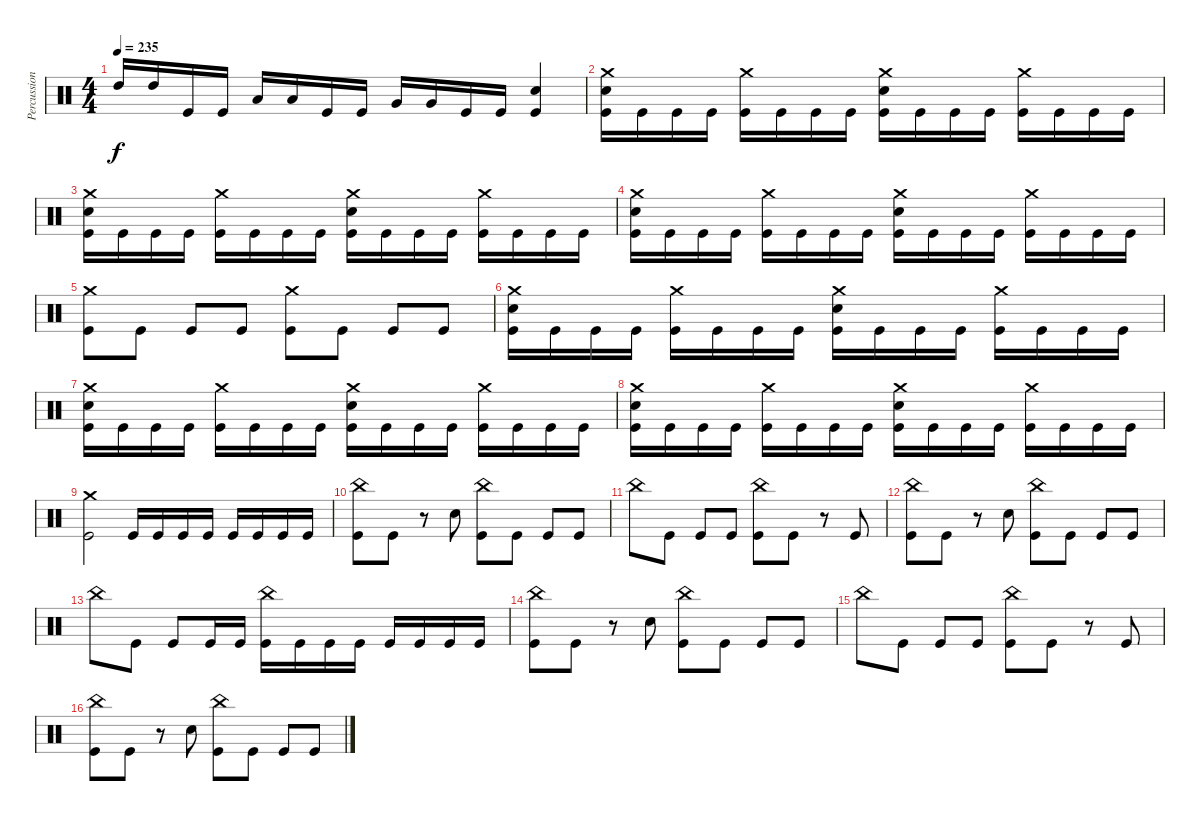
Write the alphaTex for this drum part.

\track ("Percussion" "Percussion") {instrument percussion}
\staff {score}
\articulation defaults
\ts (4 4)
\tempo 235
\clef neutral
\ks c "High Tom (hit)".16{dy f} "High Tom (hit)".16 "Kick (hit)".16 "Kick (hit)".16 "Low Tom (hit)".16 "Low Tom (hit)".16 "Kick (hit)".16 "Kick (hit)".16 "Very Low Tom (hit)".16 "Very Low Tom (hit)".16 "Kick (hit)".16 "Kick (hit)".16
("Kick (hit)" "Snare (hit) 2").4 |
("Kick (hit)" "Crash medium (hit)" "Snare (hit) 2").16 "Kick (hit)".16 "Kick (hit)".16 "Kick (hit)".16 ("Kick (hit)" "Crash medium (hit)").16 "Kick (hit)".16 "Kick (hit)".16 "Kick (hit)".16 ("Kick (hit)" "Crash medium (hit)" "Snare (hit) 2").16 "Kick (hit)".16 "Kick (hit)".16 "Kick (hit)".16 ("Kick (hit)" "Crash medium (hit)").16 "Kick (hit)".16 "Kick (hit)".16 "Kick (hit)".16 |
("Kick (hit)" "Crash medium (hit)" "Snare (hit) 2").16 "Kick (hit)".16 "Kick (hit)".16 "Kick (hit)".16 ("Kick (hit)" "Crash medium (hit)").16 "Kick (hit)".16 "Kick (hit)".16 "Kick (hit)".16 ("Kick (hit)" "Crash medium (hit)" "Snare (hit) 2").16 "Kick (hit)".16 "Kick (hit)".16 "Kick (hit)".16 ("Kick (hit)" "Crash medium (hit)").16 "Kick (hit)".16 "Kick (hit)".16 "Kick (hit)".16 |
("Kick (hit)" "Crash medium (hit)" "Snare (hit) 2").16 "Kick (hit)".16 "Kick (hit)".16 "Kick (hit)".16 ("Kick (hit)" "Crash medium (hit)").16 "Kick (hit)".16 "Kick (hit)".16 "Kick (hit)".16 ("Kick (hit)" "Crash medium (hit)" "Snare (hit) 2").16 "Kick (hit)".16 "Kick (hit)".16 "Kick (hit)".16 ("Kick (hit)" "Crash medium (hit)").16 "Kick (hit)".16 "Kick (hit)".16 "Kick (hit)".16 |
("Kick (hit)" "Crash medium (hit)").8 "Kick (hit)".8 "Kick (hit)".8 "Kick (hit)".8 ("Kick (hit)" "Crash medium (hit)").8 "Kick (hit)".8 "Kick (hit)".8 "Kick (hit)".8 |
("Kick (hit)" "Crash medium (hit)" "Snare (hit) 2").16 "Kick (hit)".16 "Kick (hit)".16 "Kick (hit)".16 ("Kick (hit)" "Crash medium (hit)").16 "Kick (hit)".16 "Kick (hit)".16 "Kick (hit)".16 ("Kick (hit)" "Crash medium (hit)" "Snare (hit) 2").16 "Kick (hit)".16 "Kick (hit)".16 "Kick (hit)".16 ("Kick (hit)" "Crash medium (hit)").16 "Kick (hit)".16 "Kick (hit)".16 "Kick (hit)".16 |
("Kick (hit)" "Crash medium (hit)" "Snare (hit) 2").16 "Kick (hit)".16 "Kick (hit)".16 "Kick (hit)".16 ("Kick (hit)" "Crash medium (hit)").16 "Kick (hit)".16 "Kick (hit)".16 "Kick (hit)".16 ("Kick (hit)" "Crash medium (hit)" "Snare (hit) 2").16 "Kick (hit)".16 "Kick (hit)".16 "Kick (hit)".16 ("Kick (hit)" "Crash medium (hit)").16 "Kick (hit)".16 "Kick (hit)".16 "Kick (hit)".16 |
("Kick (hit)" "Crash medium (hit)" "Snare (hit) 2").16 "Kick (hit)".16 "Kick (hit)".16 "Kick (hit)".16 ("Kick (hit)" "Crash medium (hit)").16 "Kick (hit)".16 "Kick (hit)".16 "Kick (hit)".16 ("Kick (hit)" "Crash medium (hit)" "Snare (hit) 2").16 "Kick (hit)".16 "Kick (hit)".16 "Kick (hit)".16 ("Kick (hit)" "Crash medium (hit)").16 "Kick (hit)".16 "Kick (hit)".16 "Kick (hit)".16 |
("Kick (hit)" "Crash medium (hit)").2 "Kick (hit)".16 "Kick (hit)".16 "Kick (hit)".16 "Kick (hit)".16 "Kick (hit)".16 "Kick (hit)".16 "Kick (hit)".16 "Kick (hit)".16 |
("Kick (hit)" "China (hit)").8 "Kick (hit)".8 r.8 "Snare (hit) 2".8 ("Kick (hit)" "China (hit)").8 "Kick (hit)".8 "Kick (hit)".8 "Kick (hit)".8 |
"China (hit)".8 "Kick (hit)".8 "Kick (hit)".8 "Kick (hit)".8 ("Kick (hit)" "China (hit)").8 "Kick (hit)".8 r.8 "Kick (hit)".8 |
("Kick (hit)" "China (hit)").8 "Kick (hit)".8 r.8 "Snare (hit) 2".8 ("Kick (hit)" "China (hit)").8 "Kick (hit)".8 "Kick (hit)".8 "Kick (hit)".8 |
"China (hit)".8 "Kick (hit)".8 "Kick (hit)".8 "Kick (hit)".16 "Kick (hit)".16 ("Kick (hit)" "China (hit)").16 "Kick (hit)".16 "Kick (hit)".16 "Kick (hit)".16 "Kick (hit)".16 "Kick (hit)".16 "Kick (hit)".16 "Kick (hit)".16 |
("Kick (hit)" "China (hit)").8 "Kick (hit)".8 r.8 "Snare (hit) 2".8 ("Kick (hit)" "China (hit)").8 "Kick (hit)".8 "Kick (hit)".8 "Kick (hit)".8 |
"China (hit)".8 "Kick (hit)".8 "Kick (hit)".8 "Kick (hit)".8 ("Kick (hit)" "China (hit)").8 "Kick (hit)".8 r.8 "Kick (hit)".8 |
("Kick (hit)" "China (hit)").8 "Kick (hit)".8 r.8 "Snare (hit) 2".8 ("Kick (hit)" "China (hit)").8 "Kick (hit)".8 "Kick (hit)".8 "Kick (hit)".8
